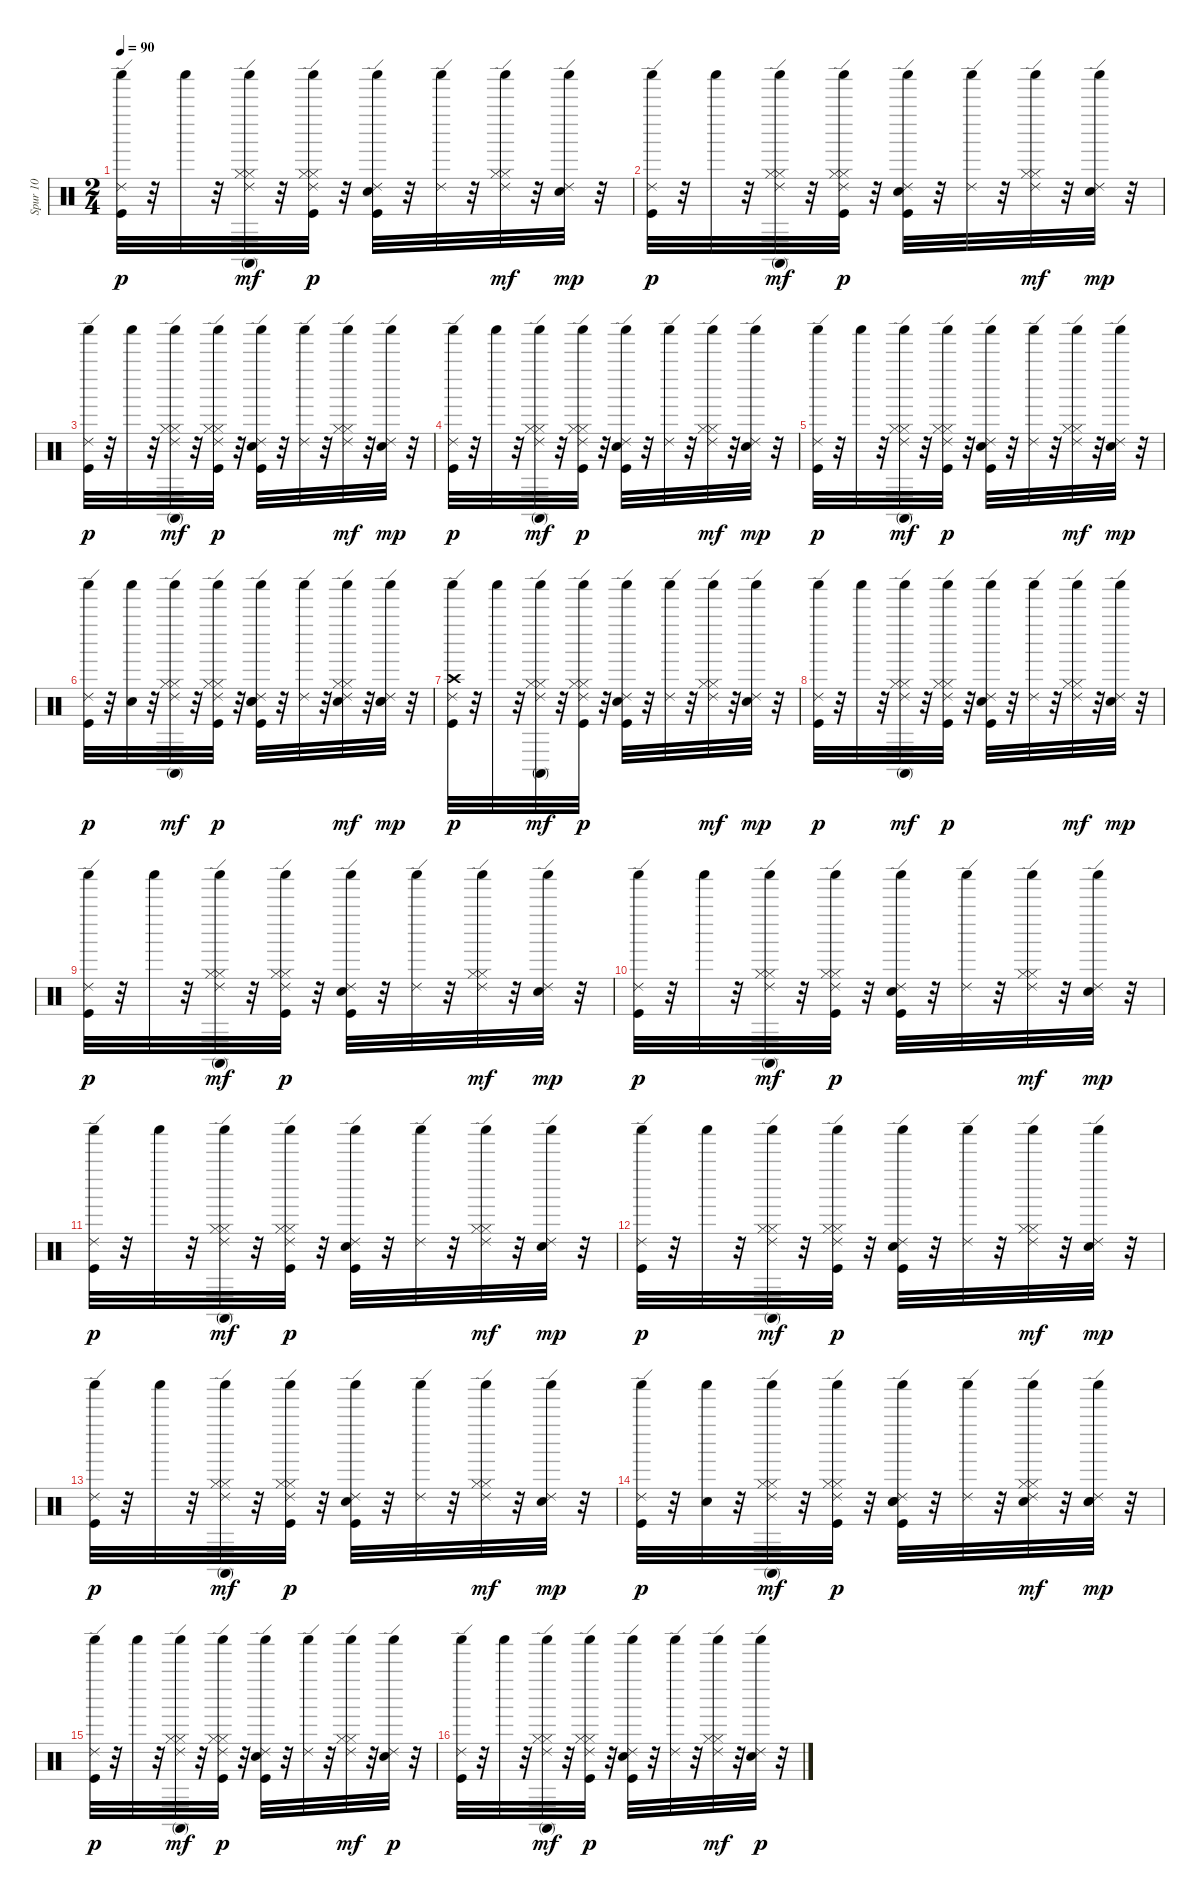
\track ("Spur 10" "Spur 10") {instrument percussion}
\staff {score}
\articulation defaults
\ts (2 4)
\tempo 90
\clef neutral
\ks c
("Shaker (hit)" "Ride (edge) 2" "Kick (hit)").32{dy p} r.32 "Shaker (hit)".32 r.32 ("Conga high (mute)" "Shaker (hit)" "Hi-Hat (closed)" "Ride (edge) 2" "Hi-Hat (closed)").32{dy mf} r.32 ("Shaker (hit)" "Kick (hit)" "Hi-Hat (closed)" "Ride (edge) 2" "Hi-Hat (closed)").32{dy p} r.32 ("Snare (hit) 2" "Shaker (hit)" "Ride (edge) 2" "Kick (hit)").32 r.32 ("Shaker (hit)" "Ride (edge) 2").32 r.32 ("Hi-Hat (closed)" "Shaker (hit)" "Ride (edge) 2" "Hi-Hat (closed)").32{dy mf} r.32 ("Shaker (hit)" "Electric Snare (hit)" "Ride (edge) 2").32{dy mp} r.32 |
("Shaker (hit)" "Ride (edge) 2" "Kick (hit)").32{dy p} r.32 "Shaker (hit)".32 r.32 ("Hi-Hat (closed)" "Shaker (hit)" "Conga high (mute)" "Ride (edge) 2" "Hi-Hat (closed)").32{dy mf} r.32 ("Shaker (hit)" "Kick (hit)" "Hi-Hat (closed)" "Ride (edge) 2" "Hi-Hat (closed)").32{dy p} r.32 ("Shaker (hit)" "Snare (hit) 2" "Ride (edge) 2" "Kick (hit)").32 r.32 ("Shaker (hit)" "Ride (edge) 2").32 r.32 ("Hi-Hat (closed)" "Shaker (hit)" "Ride (edge) 2" "Hi-Hat (closed)").32{dy mf} r.32 ("Shaker (hit)" "Electric Snare (hit)" "Ride (edge) 2").32{dy mp} r.32 |
("Shaker (hit)" "Ride (edge) 2" "Kick (hit)").32{dy p} r.32 "Shaker (hit)".32 r.32 ("Shaker (hit)" "Hi-Hat (closed)" "Conga high (mute)" "Ride (edge) 2" "Hi-Hat (closed)").32{dy mf} r.32 ("Kick (hit)" "Shaker (hit)" "Hi-Hat (closed)" "Ride (edge) 2" "Hi-Hat (closed)").32{dy p} r.32 ("Snare (hit) 2" "Shaker (hit)" "Ride (edge) 2" "Kick (hit)").32 r.32 ("Shaker (hit)" "Ride (edge) 2").32 r.32 ("Hi-Hat (closed)" "Shaker (hit)" "Ride (edge) 2" "Hi-Hat (closed)").32{dy mf} r.32 ("Electric Snare (hit)" "Shaker (hit)" "Ride (edge) 2").32{dy mp} r.32 |
("Shaker (hit)" "Ride (edge) 2" "Kick (hit)").32{dy p} r.32 "Shaker (hit)".32 r.32 ("Conga high (mute)" "Shaker (hit)" "Hi-Hat (closed)" "Ride (edge) 2" "Hi-Hat (closed)").32{dy mf} r.32 ("Kick (hit)" "Hi-Hat (closed)" "Shaker (hit)" "Ride (edge) 2" "Hi-Hat (closed)").32{dy p} r.32 ("Snare (hit) 2" "Shaker (hit)" "Ride (edge) 2" "Kick (hit)").32 r.32 ("Shaker (hit)" "Ride (edge) 2").32 r.32 ("Shaker (hit)" "Hi-Hat (closed)" "Ride (edge) 2" "Hi-Hat (closed)").32{dy mf} r.32 ("Electric Snare (hit)" "Shaker (hit)" "Ride (edge) 2").32{dy mp} r.32 |
("Shaker (hit)" "Ride (edge) 2" "Kick (hit)").32{dy p} r.32 "Shaker (hit)".32 r.32 ("Shaker (hit)" "Conga high (mute)" "Hi-Hat (closed)" "Ride (edge) 2" "Hi-Hat (closed)").32{dy mf} r.32 ("Kick (hit)" "Hi-Hat (closed)" "Shaker (hit)" "Ride (edge) 2" "Hi-Hat (closed)").32{dy p} r.32 ("Shaker (hit)" "Snare (hit) 2" "Ride (edge) 2" "Kick (hit)").32 r.32 ("Shaker (hit)" "Ride (edge) 2").32 r.32 ("Hi-Hat (closed)" "Shaker (hit)" "Ride (edge) 2" "Hi-Hat (closed)").32{dy mf} r.32 ("Shaker (hit)" "Electric Snare (hit)" "Ride (edge) 2").32{dy mp} r.32 |
("Shaker (hit)" "Ride (edge) 2" "Kick (hit)").32{dy p} r.32 ("Shaker (hit)" "Electric Snare (hit)").32 r.32 ("Shaker (hit)" "Hi-Hat (closed)" "Conga high (mute)" "Ride (edge) 2" "Hi-Hat (closed)").32{dy mf} r.32 ("Kick (hit)" "Hi-Hat (closed)" "Shaker (hit)" "Ride (edge) 2" "Hi-Hat (closed)").32{dy p} r.32 ("Snare (hit) 2" "Shaker (hit)" "Ride (edge) 2" "Kick (hit)" "Electric Snare (hit)").32 r.32 ("Shaker (hit)" "Ride (edge) 2").32 r.32 ("Shaker (hit)" "Hi-Hat (closed)" "Snare (hit) 2" "Ride (edge) 2" "Hi-Hat (closed)").32{dy mf} r.32 ("Snare (hit) 2" "Shaker (hit)" "Electric Snare (hit)" "Ride (edge) 2").32{dy mp} r.32 |
("Shaker (hit)" "Ride (edge) 2" "Kick (hit)" "Crash high (hit)").32{dy p} r.32 "Shaker (hit)".32 r.32 ("Shaker (hit)" "Hi-Hat (closed)" "Conga high (mute)" "Ride (edge) 2" "Hi-Hat (closed)").32{dy mf} r.32 ("Hi-Hat (closed)" "Shaker (hit)" "Kick (hit)" "Ride (edge) 2" "Hi-Hat (closed)").32{dy p} r.32 ("Snare (hit) 2" "Shaker (hit)" "Ride (edge) 2" "Kick (hit)").32 r.32 ("Shaker (hit)" "Ride (edge) 2").32 r.32 ("Shaker (hit)" "Hi-Hat (closed)" "Ride (edge) 2" "Hi-Hat (closed)").32{dy mf} r.32 ("Electric Snare (hit)" "Shaker (hit)" "Ride (edge) 2").32{dy mp} r.32 |
("Shaker (hit)" "Ride (edge) 2" "Kick (hit)").32{dy p} r.32 "Shaker (hit)".32 r.32 ("Shaker (hit)" "Hi-Hat (closed)" "Conga high (mute)" "Ride (edge) 2" "Hi-Hat (closed)").32{dy mf} r.32 ("Kick (hit)" "Hi-Hat (closed)" "Shaker (hit)" "Ride (edge) 2" "Hi-Hat (closed)").32{dy p} r.32 ("Shaker (hit)" "Snare (hit) 2" "Ride (edge) 2" "Kick (hit)").32 r.32 ("Shaker (hit)" "Ride (edge) 2").32 r.32 ("Hi-Hat (closed)" "Shaker (hit)" "Ride (edge) 2" "Hi-Hat (closed)").32{dy mf} r.32 ("Shaker (hit)" "Electric Snare (hit)" "Ride (edge) 2").32{dy mp} r.32 |
("Shaker (hit)" "Ride (edge) 2" "Kick (hit)").32{dy p} r.32 "Shaker (hit)".32 r.32 ("Conga high (mute)" "Shaker (hit)" "Hi-Hat (closed)" "Ride (edge) 2" "Hi-Hat (closed)").32{dy mf} r.32 ("Shaker (hit)" "Kick (hit)" "Hi-Hat (closed)" "Ride (edge) 2" "Hi-Hat (closed)").32{dy p} r.32 ("Snare (hit) 2" "Shaker (hit)" "Ride (edge) 2" "Kick (hit)").32 r.32 ("Shaker (hit)" "Ride (edge) 2").32 r.32 ("Hi-Hat (closed)" "Shaker (hit)" "Ride (edge) 2" "Hi-Hat (closed)").32{dy mf} r.32 ("Shaker (hit)" "Electric Snare (hit)" "Ride (edge) 2").32{dy mp} r.32 |
("Shaker (hit)" "Ride (edge) 2" "Kick (hit)").32{dy p} r.32 "Shaker (hit)".32 r.32 ("Hi-Hat (closed)" "Shaker (hit)" "Conga high (mute)" "Ride (edge) 2" "Hi-Hat (closed)").32{dy mf} r.32 ("Shaker (hit)" "Kick (hit)" "Hi-Hat (closed)" "Ride (edge) 2" "Hi-Hat (closed)").32{dy p} r.32 ("Shaker (hit)" "Snare (hit) 2" "Ride (edge) 2" "Kick (hit)").32 r.32 ("Shaker (hit)" "Ride (edge) 2").32 r.32 ("Hi-Hat (closed)" "Shaker (hit)" "Ride (edge) 2" "Hi-Hat (closed)").32{dy mf} r.32 ("Shaker (hit)" "Electric Snare (hit)" "Ride (edge) 2").32{dy mp} r.32 |
("Shaker (hit)" "Ride (edge) 2" "Kick (hit)").32{dy p} r.32 "Shaker (hit)".32 r.32 ("Shaker (hit)" "Hi-Hat (closed)" "Conga high (mute)" "Ride (edge) 2" "Hi-Hat (closed)").32{dy mf} r.32 ("Kick (hit)" "Shaker (hit)" "Hi-Hat (closed)" "Ride (edge) 2" "Hi-Hat (closed)").32{dy p} r.32 ("Snare (hit) 2" "Shaker (hit)" "Ride (edge) 2" "Kick (hit)").32 r.32 ("Shaker (hit)" "Ride (edge) 2").32 r.32 ("Hi-Hat (closed)" "Shaker (hit)" "Ride (edge) 2" "Hi-Hat (closed)").32{dy mf} r.32 ("Electric Snare (hit)" "Shaker (hit)" "Ride (edge) 2").32{dy mp} r.32 |
("Shaker (hit)" "Ride (edge) 2" "Kick (hit)").32{dy p} r.32 "Shaker (hit)".32 r.32 ("Conga high (mute)" "Shaker (hit)" "Hi-Hat (closed)" "Ride (edge) 2" "Hi-Hat (closed)").32{dy mf} r.32 ("Kick (hit)" "Hi-Hat (closed)" "Shaker (hit)" "Ride (edge) 2" "Hi-Hat (closed)").32{dy p} r.32 ("Snare (hit) 2" "Shaker (hit)" "Ride (edge) 2" "Kick (hit)").32 r.32 ("Shaker (hit)" "Ride (edge) 2").32 r.32 ("Shaker (hit)" "Hi-Hat (closed)" "Ride (edge) 2" "Hi-Hat (closed)").32{dy mf} r.32 ("Electric Snare (hit)" "Shaker (hit)" "Ride (edge) 2").32{dy mp} r.32 |
("Shaker (hit)" "Ride (edge) 2" "Kick (hit)").32{dy p} r.32 "Shaker (hit)".32 r.32 ("Shaker (hit)" "Conga high (mute)" "Hi-Hat (closed)" "Ride (edge) 2" "Hi-Hat (closed)").32{dy mf} r.32 ("Kick (hit)" "Hi-Hat (closed)" "Shaker (hit)" "Ride (edge) 2" "Hi-Hat (closed)").32{dy p} r.32 ("Shaker (hit)" "Snare (hit) 2" "Ride (edge) 2" "Kick (hit)").32 r.32 ("Shaker (hit)" "Ride (edge) 2").32 r.32 ("Hi-Hat (closed)" "Shaker (hit)" "Ride (edge) 2" "Hi-Hat (closed)").32{dy mf} r.32 ("Shaker (hit)" "Electric Snare (hit)" "Ride (edge) 2").32{dy mp} r.32 |
("Shaker (hit)" "Ride (edge) 2" "Kick (hit)").32{dy p} r.32 ("Shaker (hit)" "Electric Snare (hit)").32 r.32 ("Shaker (hit)" "Hi-Hat (closed)" "Conga high (mute)" "Ride (edge) 2" "Hi-Hat (closed)").32{dy mf} r.32 ("Kick (hit)" "Hi-Hat (closed)" "Shaker (hit)" "Ride (edge) 2" "Hi-Hat (closed)").32{dy p} r.32 ("Snare (hit) 2" "Shaker (hit)" "Ride (edge) 2" "Kick (hit)" "Electric Snare (hit)").32 r.32 ("Shaker (hit)" "Ride (edge) 2").32 r.32 ("Shaker (hit)" "Hi-Hat (closed)" "Snare (hit) 2" "Ride (edge) 2" "Hi-Hat (closed)").32{dy mf} r.32 ("Snare (hit) 2" "Shaker (hit)" "Electric Snare (hit)" "Ride (edge) 2").32{dy mp} r.32 |
("Ride (edge) 2" "Shaker (hit)" "Kick (hit)").32{dy p} r.32 "Shaker (hit)".32 r.32 ("Ride (edge) 2" "Shaker (hit)" "Hi-Hat (closed)" "Conga high (mute)" "Hi-Hat (closed)").32{dy mf} r.32 ("Ride (edge) 2" "Kick (hit)" "Shaker (hit)" "Hi-Hat (closed)" "Hi-Hat (closed)").32{dy p} r.32 ("Ride (edge) 2" "Snare (hit) 2" "Shaker (hit)" "Kick (hit)").32 r.32 ("Ride (edge) 2" "Shaker (hit)").32 r.32 ("Ride (edge) 2" "Hi-Hat (closed)" "Shaker (hit)" "Hi-Hat (closed)").32{dy mf} r.32 ("Ride (edge) 2" "Electric Snare (hit)" "Shaker (hit)").32{dy p} r.32 |
("Ride (edge) 2" "Shaker (hit)" "Kick (hit)").32 r.32 "Shaker (hit)".32 r.32 ("Ride (edge) 2" "Conga high (mute)" "Shaker (hit)" "Hi-Hat (closed)" "Hi-Hat (closed)").32{dy mf} r.32 ("Ride (edge) 2" "Kick (hit)" "Hi-Hat (closed)" "Shaker (hit)" "Hi-Hat (closed)").32{dy p} r.32 ("Ride (edge) 2" "Snare (hit) 2" "Shaker (hit)" "Kick (hit)").32 r.32 ("Ride (edge) 2" "Shaker (hit)").32 r.32 ("Ride (edge) 2" "Shaker (hit)" "Hi-Hat (closed)" "Hi-Hat (closed)").32{dy mf} r.32 ("Ride (edge) 2" "Electric Snare (hit)" "Shaker (hit)").32{dy p} r.32
